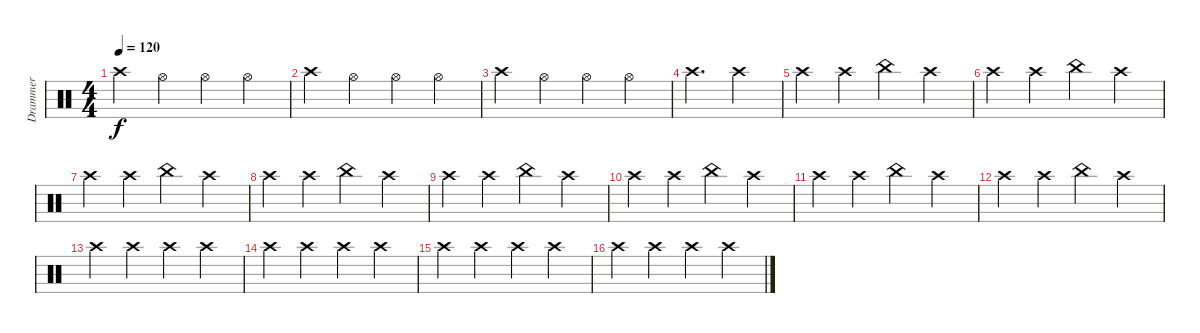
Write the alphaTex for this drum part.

\track ("Drammer" "Drammer") {instrument percussion}
\staff {score}
\articulation defaults
\ts (4 4)
\tempo 120
\clef neutral
\ks c "Crash high (hit)".4{dy f} "Hi-Hat (open)".4 "Hi-Hat (open)".4 "Hi-Hat (open)".4
|
"Crash high (hit)".4 "Hi-Hat (open)".4 "Hi-Hat (open)".4 "Hi-Hat (open)".4 |
"Crash high (hit)".4 "Hi-Hat (open)".4 "Hi-Hat (open)".4 "Hi-Hat (open)".4 |
"Crash high (hit)".4{d} "Crash high (hit)".4 |
"Crash high (hit)".4 "Crash high (hit)".4 "China (hit)".4 "Crash high (hit)".4 |
"Crash high (hit)".4 "Crash high (hit)".4 "China (hit)".4 "Crash high (hit)".4 |
"Crash high (hit)".4 "Crash high (hit)".4 "China (hit)".4 "Crash high (hit)".4 |
"Crash high (hit)".4 "Crash high (hit)".4 "China (hit)".4 "Crash high (hit)".4 |
"Crash high (hit)".4 "Crash high (hit)".4 "China (hit)".4 "Crash high (hit)".4 |
"Crash high (hit)".4 "Crash high (hit)".4 "China (hit)".4 "Crash high (hit)".4 |
"Crash high (hit)".4 "Crash high (hit)".4 "China (hit)".4 "Crash high (hit)".4 |
"Crash high (hit)".4 "Crash high (hit)".4 "China (hit)".4 "Crash high (hit)".4 |
"Crash high (hit)".4 "Crash high (hit)".4 "Crash high (hit)".4 "Crash high (hit)".4 |
"Crash high (hit)".4 "Crash high (hit)".4 "Crash high (hit)".4 "Crash high (hit)".4 |
"Crash high (hit)".4 "Crash high (hit)".4 "Crash high (hit)".4 "Crash high (hit)".4 |
"Crash high (hit)".4 "Crash high (hit)".4 "Crash high (hit)".4 "Crash high (hit)".4
